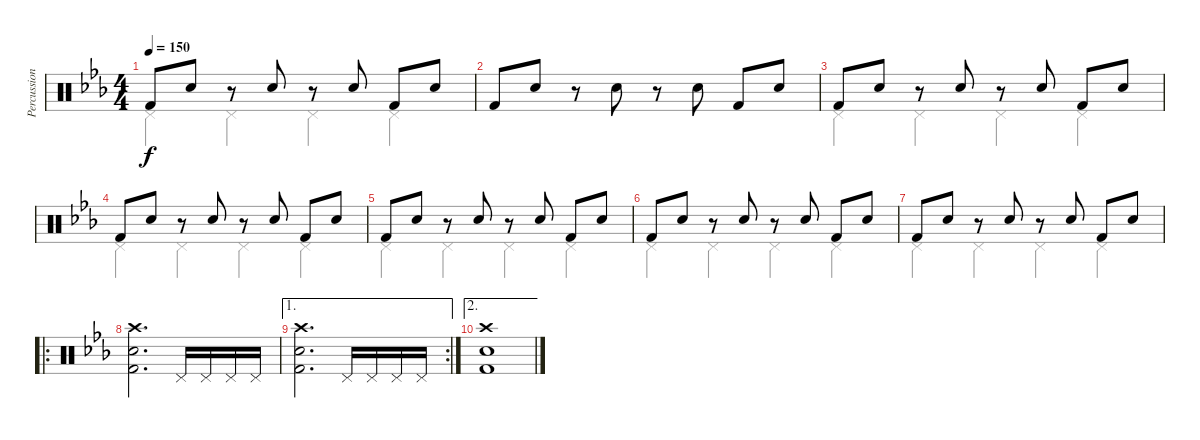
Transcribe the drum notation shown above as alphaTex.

\track ("Percussion" "Percussion") {instrument percussion}
\staff {score}
\articulation defaults
\voice
\ts (4 4)
\tempo 150
\clef neutral
\ks cminor "Kick (hit) 2".8{dy f} "Snare (hit) 2".8
r.8 "Snare (hit) 2".8 r.8 "Snare (hit) 2".8 "Kick (hit) 2".8 "Snare (hit) 2".8 |
"Kick (hit) 2".8 "Snare (hit) 2".8 r.8 "Snare (hit) 2".8 r.8 "Snare (hit) 2".8 "Kick (hit) 2".8 "Snare (hit) 2".8 |
"Kick (hit) 2".8 "Snare (hit) 2".8 r.8 "Snare (hit) 2".8 r.8 "Snare (hit) 2".8 "Kick (hit) 2".8 "Snare (hit) 2".8 |
"Kick (hit) 2".8 "Snare (hit) 2".8 r.8 "Snare (hit) 2".8 r.8 "Snare (hit) 2".8 "Kick (hit) 2".8 "Snare (hit) 2".8 |
"Kick (hit) 2".8 "Snare (hit) 2".8 r.8 "Snare (hit) 2".8 r.8 "Snare (hit) 2".8 "Kick (hit) 2".8 "Snare (hit) 2".8 |
"Kick (hit) 2".8 "Snare (hit) 2".8 r.8 "Snare (hit) 2".8 r.8 "Snare (hit) 2".8 "Kick (hit) 2".8 "Snare (hit) 2".8 |
"Kick (hit) 2".8 "Snare (hit) 2".8 r.8 "Snare (hit) 2".8 r.8 "Snare (hit) 2".8 "Kick (hit) 2".8 "Snare (hit) 2".8 |
\ro
("Crash high (hit)" "Snare (hit) 2" "Kick (hit) 2").2{d} "Pedal Hi-Hat (hit)".16 "Pedal Hi-Hat (hit)".16 "Pedal Hi-Hat (hit)".16 "Pedal Hi-Hat (hit)".16 |
\ae 1
\rc 2
("Crash high (hit)" "Snare (hit) 2" "Kick (hit) 2").2{d} "Pedal Hi-Hat (hit)".16 "Pedal Hi-Hat (hit)".16 "Pedal Hi-Hat (hit)".16 "Pedal Hi-Hat (hit)".16 |
\ae 2
("Crash high (hit)" "Snare (hit) 2" "Kick (hit) 2").1
\voice
\clef neutral
\ottava regular
\simile none
\ks cminor "Pedal Hi-Hat (hit)".4{dy f} "Pedal Hi-Hat (hit)".4 "Pedal Hi-Hat (hit)".4 "Pedal Hi-Hat (hit)".4
|
|
"Pedal Hi-Hat (hit)".4 "Pedal Hi-Hat (hit)".4 "Pedal Hi-Hat (hit)".4 "Pedal Hi-Hat (hit)".4 |
"Pedal Hi-Hat (hit)".4 "Pedal Hi-Hat (hit)".4 "Pedal Hi-Hat (hit)".4 "Pedal Hi-Hat (hit)".4 |
"Pedal Hi-Hat (hit)".4 "Pedal Hi-Hat (hit)".4 "Pedal Hi-Hat (hit)".4 "Pedal Hi-Hat (hit)".4 |
"Pedal Hi-Hat (hit)".4 "Pedal Hi-Hat (hit)".4 "Pedal Hi-Hat (hit)".4 "Pedal Hi-Hat (hit)".4 |
"Pedal Hi-Hat (hit)".4 "Pedal Hi-Hat (hit)".4 "Pedal Hi-Hat (hit)".4 "Pedal Hi-Hat (hit)".4 |
|
|
